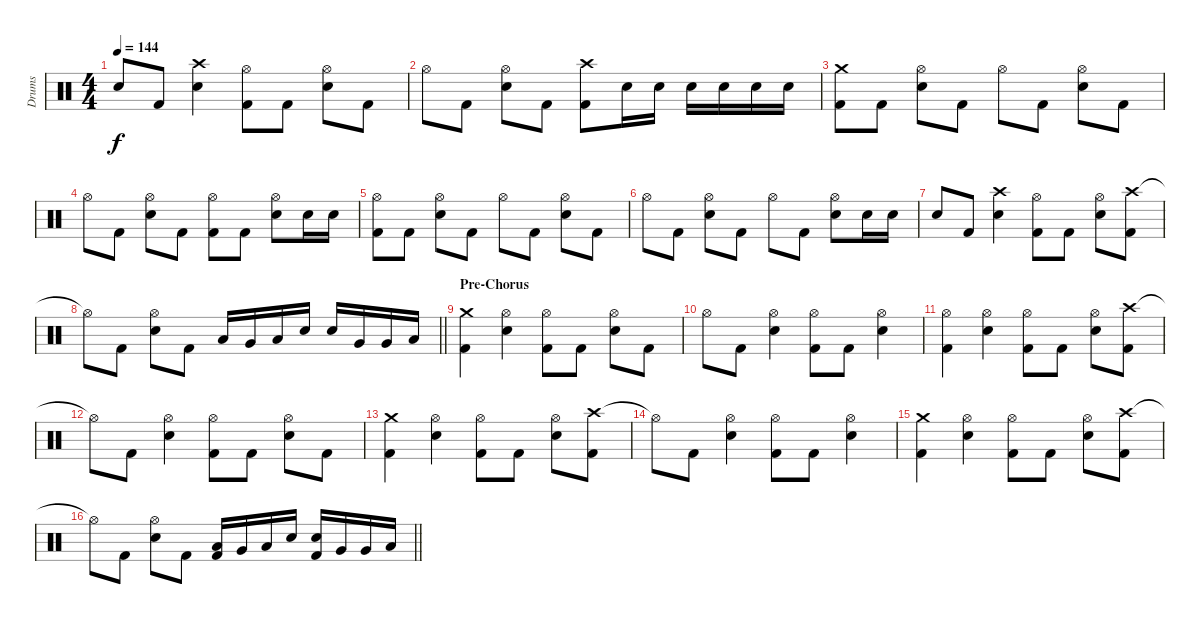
\track ("Drums" "Drums") {instrument percussion}
\staff {score}
\articulation defaults
\ts (4 4)
\tempo 144
\clef neutral
\ks c "Electric Snare (hit)".8{dy f} "Kick (hit) 2".8
("Crash high (hit)" "Electric Snare (hit)").4 ("Hi-Hat (open)" "Kick (hit) 2").8 "Kick (hit) 2".8 ("Hi-Hat (open)" "Electric Snare (hit)").8 "Kick (hit) 2".8 |
"Hi-Hat (open)".8 "Kick (hit) 2".8 ("Hi-Hat (open)" "Electric Snare (hit)").8 "Kick (hit) 2".8 ("Crash high (hit)" "Kick (hit) 2").8 "Electric Snare (hit)".16 "Electric Snare (hit)".16 "Electric Snare (hit)".16 "Electric Snare (hit)".16 "Electric Snare (hit)".16 "Electric Snare (hit)".16 |
("Crash medium (hit)" "Kick (hit) 2").8 "Kick (hit) 2".8 ("Hi-Hat (open)" "Electric Snare (hit)").8 "Kick (hit) 2".8 "Hi-Hat (open)".8 "Kick (hit) 2".8 ("Hi-Hat (open)" "Electric Snare (hit)").8 "Kick (hit) 2".8 |
"Hi-Hat (open)".8 "Kick (hit) 2".8 ("Hi-Hat (open)" "Electric Snare (hit)").8 "Kick (hit) 2".8 ("Hi-Hat (open)" "Kick (hit) 2").8 "Kick (hit) 2".8 ("Hi-Hat (open)" "Electric Snare (hit)").8 "Electric Snare (hit)".16 "Electric Snare (hit)".16 |
("Hi-Hat (open)" "Kick (hit) 2").8 "Kick (hit) 2".8 ("Hi-Hat (open)" "Electric Snare (hit)").8 "Kick (hit) 2".8 "Hi-Hat (open)".8 "Kick (hit) 2".8 ("Hi-Hat (open)" "Electric Snare (hit)").8 "Kick (hit) 2".8 |
"Hi-Hat (open)".8 "Kick (hit) 2".8 ("Hi-Hat (open)" "Electric Snare (hit)").8 "Kick (hit) 2".8 "Hi-Hat (open)".8 "Kick (hit) 2".8 ("Hi-Hat (open)" "Electric Snare (hit)").8 "Electric Snare (hit)".16 "Electric Snare (hit)".16 |
"Electric Snare (hit)".8 "Kick (hit) 2".8 ("Crash high (hit)" "Electric Snare (hit)").4 ("Hi-Hat (open)" "Kick (hit) 2").8 "Kick (hit) 2".8 ("Hi-Hat (open)" "Electric Snare (hit)").8 ("Crash high (hit)" "Kick (hit) 2").8 |
\barLineRight lightlight "Hi-Hat (open)"{t}.8 "Kick (hit) 2".8
("Hi-Hat (open)" "Electric Snare (hit)").8 "Kick (hit) 2".8 "Low Tom (hit)".16 "Very Low Tom (hit)".16 "Low Tom (hit)".16 "Electric Snare (hit)".16 "Electric Snare (hit)".16 "Very Low Tom (hit)".16 "Very Low Tom (hit)".16 "Low Floor Tom (hit)".16 |
\section ("" "Pre-Chorus")
("Crash medium (hit)" "Kick (hit) 2").4 ("Hi-Hat (open)" "Electric Snare (hit)").4 ("Hi-Hat (open)" "Kick (hit) 2").8 "Kick (hit) 2".8 ("Hi-Hat (open)" "Electric Snare (hit)").8 "Kick (hit) 2".8 |
"Hi-Hat (open)".8 "Kick (hit) 2".8 ("Hi-Hat (open)" "Electric Snare (hit)").4 ("Hi-Hat (open)" "Kick (hit) 2").8 "Kick (hit) 2".8 ("Hi-Hat (open)" "Electric Snare (hit)").4 |
("Hi-Hat (open)" "Kick (hit) 2").4 ("Hi-Hat (open)" "Electric Snare (hit)").4 ("Hi-Hat (open)" "Kick (hit) 2").8 "Kick (hit) 2".8 ("Hi-Hat (open)" "Electric Snare (hit)").8 ("Crash high (hit)" "Kick (hit) 2").8 |
"Hi-Hat (open)"{t}.8 "Kick (hit) 2".8 ("Hi-Hat (open)" "Electric Snare (hit)").4 ("Hi-Hat (open)" "Kick (hit) 2").8 "Kick (hit) 2".8 ("Hi-Hat (open)" "Electric Snare (hit)").8 "Kick (hit) 2".8 |
("Crash medium (hit)" "Kick (hit) 2").4 ("Hi-Hat (open)" "Electric Snare (hit)").4 ("Hi-Hat (open)" "Kick (hit) 2").8 "Kick (hit) 2".8 ("Hi-Hat (open)" "Electric Snare (hit)").8 ("Crash high (hit)" "Kick (hit) 2").8 |
"Hi-Hat (open)"{t}.8 "Kick (hit) 2".8 ("Hi-Hat (open)" "Electric Snare (hit)").4 ("Hi-Hat (open)" "Kick (hit) 2").8 "Kick (hit) 2".8 ("Hi-Hat (open)" "Electric Snare (hit)").4 |
("Crash medium (hit)" "Kick (hit) 2").4 ("Hi-Hat (open)" "Electric Snare (hit)").4 ("Hi-Hat (open)" "Kick (hit) 2").8 "Kick (hit) 2".8 ("Hi-Hat (open)" "Electric Snare (hit)").8 ("Crash high (hit)" "Kick (hit) 2").8 |
\barLineRight lightlight "Hi-Hat (open)"{t}.8 "Kick (hit) 2".8
("Hi-Hat (open)" "Electric Snare (hit)").8 "Kick (hit) 2".8 ("Low Tom (hit)" "Kick (hit) 2").16 "Very Low Tom (hit)".16 "Low Tom (hit)".16 "Electric Snare (hit)".16 ("Electric Snare (hit)" "Kick (hit) 2").16 "Very Low Tom (hit)".16 "Very Low Tom (hit)".16 "Low Floor Tom (hit)".16
